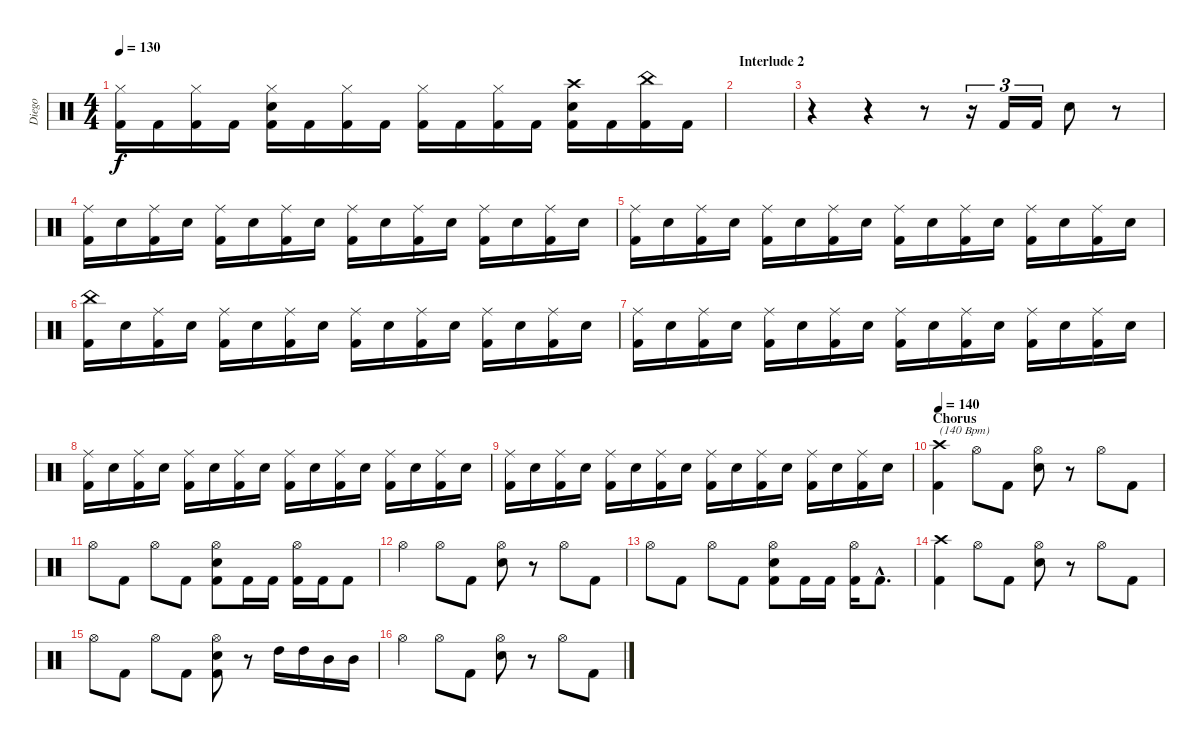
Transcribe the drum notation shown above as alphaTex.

\track ("Diego" "Diego") {instrument percussion}
\staff {score}
\articulation defaults
\ts (4 4)
\tempo 130
\clef neutral
\ks c
("Hi-Hat (closed)" "Kick (hit) 2").16{dy f} "Kick (hit) 2".16 ("Hi-Hat (closed)" "Kick (hit) 2").16 "Kick (hit) 2".16 ("Hi-Hat (closed)" "Snare (hit) 2" "Kick (hit) 2").16 "Kick (hit) 2".16 ("Hi-Hat (closed)" "Kick (hit) 2").16 "Kick (hit) 2".16 ("Hi-Hat (closed)" "Kick (hit) 2").16 "Kick (hit) 2".16 ("Hi-Hat (closed)" "Kick (hit) 2").16 "Kick (hit) 2".16 ("Crash high (hit)" "Snare (hit) 2" "Kick (hit) 2").16 "Kick (hit) 2".16 ("China (hit)" "Kick (hit) 2").16 "Kick (hit) 2".16 |
\section ("" "Interlude 2")
|
r.4 r.4 r.8 r.16{tu (3 2)} "Kick (hit) 2".16{tu (3 2)} "Kick (hit) 2".16{tu (3 2)} "Snare (hit) 2".8 r.8 |
("Ride (middle)" "Kick (hit) 2").16 "Snare (hit) 2".16 ("Ride (middle)" "Kick (hit) 2").16 "Snare (hit) 2".16 ("Ride (middle)" "Kick (hit) 2").16 "Snare (hit) 2".16 ("Ride (middle)" "Kick (hit) 2").16 "Snare (hit) 2".16 ("Ride (middle)" "Kick (hit) 2").16 "Snare (hit) 2".16 ("Ride (middle)" "Kick (hit) 2").16 "Snare (hit) 2".16 ("Ride (middle)" "Kick (hit) 2").16 "Snare (hit) 2".16 ("Ride (middle)" "Kick (hit) 2").16 "Snare (hit) 2".16 |
("Ride (middle)" "Kick (hit) 2").16 "Snare (hit) 2".16 ("Ride (middle)" "Kick (hit) 2").16 "Snare (hit) 2".16 ("Ride (middle)" "Kick (hit) 2").16 "Snare (hit) 2".16 ("Ride (middle)" "Kick (hit) 2").16 "Snare (hit) 2".16 ("Ride (middle)" "Kick (hit) 2").16 "Snare (hit) 2".16 ("Ride (middle)" "Kick (hit) 2").16 "Snare (hit) 2".16 ("Ride (middle)" "Kick (hit) 2").16 "Snare (hit) 2".16 ("Ride (middle)" "Kick (hit) 2").16 "Snare (hit) 2".16 |
("China (hit)" "Kick (hit) 2").16 "Snare (hit) 2".16 ("Ride (middle)" "Kick (hit) 2").16 "Snare (hit) 2".16 ("Ride (middle)" "Kick (hit) 2").16 "Snare (hit) 2".16 ("Ride (middle)" "Kick (hit) 2").16 "Snare (hit) 2".16 ("Ride (middle)" "Kick (hit) 2").16 "Snare (hit) 2".16 ("Ride (middle)" "Kick (hit) 2").16 "Snare (hit) 2".16 ("Ride (middle)" "Kick (hit) 2").16 "Snare (hit) 2".16 ("Ride (middle)" "Kick (hit) 2").16 "Snare (hit) 2".16 |
("Ride (middle)" "Kick (hit) 2").16 "Snare (hit) 2".16 ("Ride (middle)" "Kick (hit) 2").16 "Snare (hit) 2".16 ("Ride (middle)" "Kick (hit) 2").16 "Snare (hit) 2".16 ("Ride (middle)" "Kick (hit) 2").16 "Snare (hit) 2".16 ("Ride (middle)" "Kick (hit) 2").16 "Snare (hit) 2".16 ("Ride (middle)" "Kick (hit) 2").16 "Snare (hit) 2".16 ("Ride (middle)" "Kick (hit) 2").16 "Snare (hit) 2".16 ("Ride (middle)" "Kick (hit) 2").16 "Snare (hit) 2".16 |
("Ride (middle)" "Kick (hit) 2").16 "Snare (hit) 2".16 ("Ride (middle)" "Kick (hit) 2").16 "Snare (hit) 2".16 ("Ride (middle)" "Kick (hit) 2").16 "Snare (hit) 2".16 ("Ride (middle)" "Kick (hit) 2").16 "Snare (hit) 2".16 ("Ride (middle)" "Kick (hit) 2").16 "Snare (hit) 2".16 ("Ride (middle)" "Kick (hit) 2").16 "Snare (hit) 2".16 ("Ride (middle)" "Kick (hit) 2").16 "Snare (hit) 2".16 ("Ride (middle)" "Kick (hit) 2").16 "Snare (hit) 2".16 |
("Ride (middle)" "Kick (hit) 2").16 "Snare (hit) 2".16 ("Ride (middle)" "Kick (hit) 2").16 "Snare (hit) 2".16 ("Ride (middle)" "Kick (hit) 2").16 "Snare (hit) 2".16 ("Ride (middle)" "Kick (hit) 2").16 "Snare (hit) 2".16 ("Ride (middle)" "Kick (hit) 2").16 "Snare (hit) 2".16 ("Ride (middle)" "Kick (hit) 2").16 "Snare (hit) 2".16 ("Ride (middle)" "Kick (hit) 2").16 "Snare (hit) 2".16 ("Ride (middle)" "Kick (hit) 2").16 "Snare (hit) 2".16 |
\section ("" "Chorus")
\tempo 140
("Crash high (hit)" "Kick (hit) 2").4{txt "(140 Bpm)"} "Hi-Hat (open)".8 "Kick (hit) 2".8 ("Hi-Hat (open)" "Snare (hit) 2").8 r.8 "Hi-Hat (open)".8 "Kick (hit) 2".8 |
"Hi-Hat (open)".8 "Kick (hit) 2".8 "Hi-Hat (open)".8 "Kick (hit) 2".8 ("Hi-Hat (open)" "Snare (hit) 2" "Kick (hit) 2").8 "Kick (hit) 2".16 "Kick (hit) 2".16 ("Hi-Hat (open)" "Kick (hit) 2").16 "Kick (hit) 2".16 "Kick (hit) 2".8 |
"Hi-Hat (open)".4 "Hi-Hat (open)".8 "Kick (hit) 2".8 ("Hi-Hat (open)" "Snare (hit) 2").8 r.8 "Hi-Hat (open)".8 "Kick (hit) 2".8 |
"Hi-Hat (open)".8 "Kick (hit) 2".8 "Hi-Hat (open)".8 "Kick (hit) 2".8 ("Hi-Hat (open)" "Snare (hit) 2" "Kick (hit) 2").8 "Kick (hit) 2".16 "Kick (hit) 2".16 ("Hi-Hat (open)" "Kick (hit) 2").16 "Kick (hit) 2"{hac}.8{d} |
("Crash high (hit)" "Kick (hit) 2").4 "Hi-Hat (open)".8 "Kick (hit) 2".8 ("Hi-Hat (open)" "Snare (hit) 2").8 r.8 "Hi-Hat (open)".8 "Kick (hit) 2".8 |
"Hi-Hat (open)".8 "Kick (hit) 2".8 "Hi-Hat (open)".8 "Kick (hit) 2".8 ("Hi-Hat (open)" "Snare (hit) 2" "Kick (hit) 2").8 r.8 "High Tom (hit)".16 "High Tom (hit)".16 "Mid Tom (hit)".16 "Mid Tom (hit)".16 |
"Hi-Hat (open)".4 "Hi-Hat (open)".8 "Kick (hit) 2".8 ("Hi-Hat (open)" "Snare (hit) 2").8 r.8 "Hi-Hat (open)".8 "Kick (hit) 2".8
